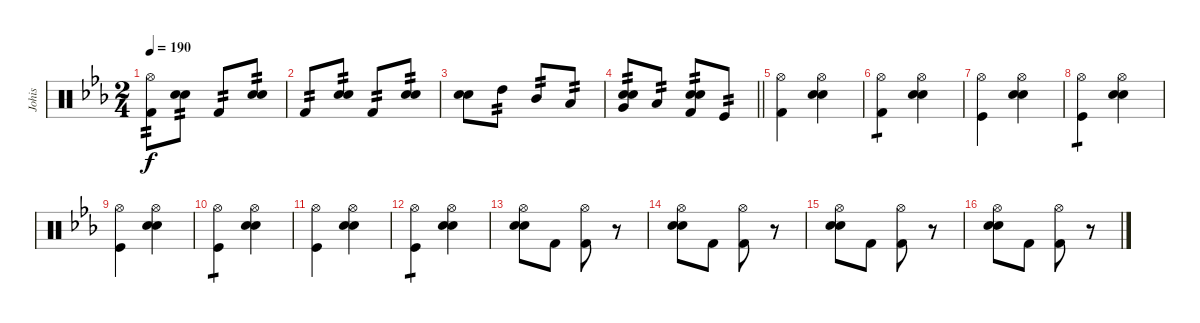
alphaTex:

\track ("Johis" "Johis") {instrument percussion}
\staff {score}
\articulation defaults
\ts (2 4)
\tempo 190
\clef neutral
\ks eb
("Hi-Hat (open)" "Kick (hit) 2").8{tp 2 dy f} ("Electric Snare (hit)" "Snare (hit) 2").8{tp 2} "Kick (hit) 2".8{tp 2} ("Electric Snare (hit)" "Snare (hit) 2").8{tp 2} |
"Kick (hit) 2".8{tp 2} ("Electric Snare (hit)" "Snare (hit) 2").8{tp 2} "Kick (hit) 2".8{tp 2} ("Electric Snare (hit)" "Snare (hit) 2").8{tp 2} |
("Electric Snare (hit)" "Snare (hit) 2").8 "High Tom (hit)".8{tp 2} "Mid Tom (hit)".8{tp 2} "Low Tom (hit)".8{tp 2} |
\barLineRight lightlight
("Electric Snare (hit)" "Snare (hit) 2" "Very Low Tom (hit)").8{tp 2} "Low Floor Tom (hit)".8{tp 2} ("Electric Snare (hit)" "Snare (hit) 2" "Kick (hit) 2").8{tp 2} "Kick (hit)".8{tp 2} |
("Hi-Hat (open)" "Kick (hit) 2").4 ("Hi-Hat (open)" "Electric Snare (hit)" "Snare (hit) 2").4 |
("Hi-Hat (open)" "Kick (hit) 2").4{tp 1} ("Hi-Hat (open)" "Electric Snare (hit)" "Snare (hit) 2").4 |
("Hi-Hat (open)" "Kick (hit)").4 ("Hi-Hat (open)" "Electric Snare (hit)" "Snare (hit) 2").4 |
("Hi-Hat (open)" "Kick (hit)").4{tp 1} ("Hi-Hat (open)" "Electric Snare (hit)" "Snare (hit) 2").4 |
("Hi-Hat (open)" "Kick (hit)").4 ("Hi-Hat (open)" "Electric Snare (hit)" "Snare (hit) 2").4 |
("Hi-Hat (open)" "Kick (hit)").4{tp 1} ("Hi-Hat (open)" "Electric Snare (hit)" "Snare (hit) 2").4 |
("Hi-Hat (open)" "Kick (hit)").4 ("Hi-Hat (open)" "Electric Snare (hit)" "Snare (hit) 2").4 |
("Hi-Hat (open)" "Kick (hit)").4{tp 1} ("Hi-Hat (open)" "Electric Snare (hit)" "Snare (hit) 2").4 |
("Electric Snare (hit)" "Hi-Hat (open)" "Snare (hit) 2").8 "Kick (hit) 2".8 ("Hi-Hat (open)" "Kick (hit) 2").8 r.8 |
("Hi-Hat (open)" "Snare (hit) 2" "Electric Snare (hit)").8 "Kick (hit) 2".8 ("Hi-Hat (open)" "Kick (hit) 2").8 r.8 |
("Hi-Hat (open)" "Snare (hit) 2" "Electric Snare (hit)").8 "Kick (hit) 2".8 ("Hi-Hat (open)" "Kick (hit) 2").8 r.8 |
("Hi-Hat (open)" "Snare (hit) 2" "Electric Snare (hit)").8 "Kick (hit) 2".8 ("Hi-Hat (open)" "Kick (hit) 2").8 r.8
